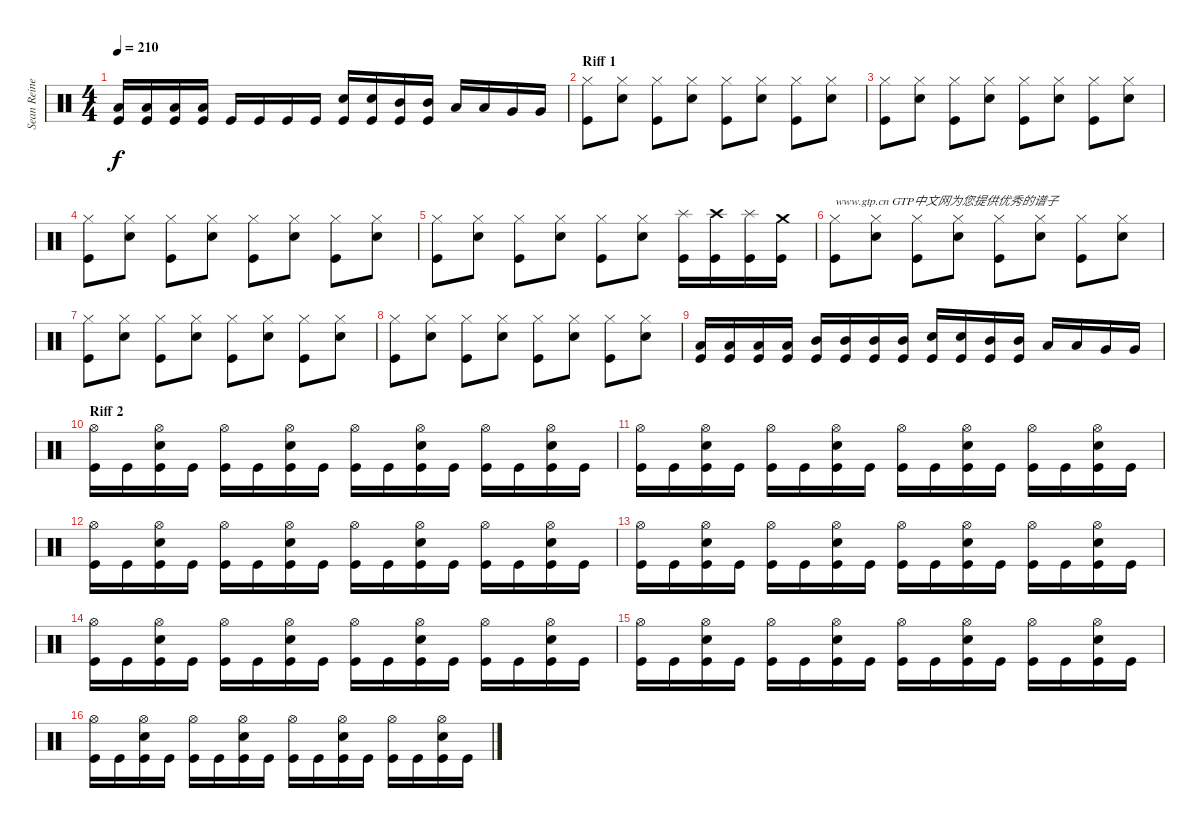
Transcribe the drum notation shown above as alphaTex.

\track ("Sean Reinert" "Sean Reine") {instrument percussion}
\staff {score}
\articulation defaults
\ts (4 4)
\tempo 210
\clef neutral
\ks c
("Low Tom (hit)" "Kick (hit)").16{dy f} ("Low Tom (hit)" "Kick (hit)").16 ("Low Tom (hit)" "Kick (hit)").16 ("Low Tom (hit)" "Kick (hit)").16 "Kick (hit)".16 "Kick (hit)".16 "Kick (hit)".16 "Kick (hit)".16 ("Snare (hit) 2" "Kick (hit)").16 ("Snare (hit) 2" "Kick (hit)").16 ("Mid Tom (hit)" "Kick (hit)").16 ("Mid Tom (hit)" "Kick (hit)").16 "Low Tom (hit)".16 "Low Tom (hit)".16 "Very Low Tom (hit)".16 "Very Low Tom (hit)".16 |
\section ("" "Riff 1")
("Hi-Hat (closed)" "Kick (hit)").8 ("Hi-Hat (closed)" "Snare (hit) 2").8 ("Hi-Hat (closed)" "Kick (hit)").8 ("Hi-Hat (closed)" "Snare (hit) 2").8 ("Hi-Hat (closed)" "Kick (hit)").8 ("Hi-Hat (closed)" "Snare (hit) 2").8 ("Hi-Hat (closed)" "Kick (hit)").8 ("Hi-Hat (closed)" "Snare (hit) 2").8 |
("Hi-Hat (closed)" "Kick (hit)").8 ("Hi-Hat (closed)" "Snare (hit) 2").8 ("Hi-Hat (closed)" "Kick (hit)").8 ("Hi-Hat (closed)" "Snare (hit) 2").8 ("Hi-Hat (closed)" "Kick (hit)").8 ("Hi-Hat (closed)" "Snare (hit) 2").8 ("Hi-Hat (closed)" "Kick (hit)").8 ("Hi-Hat (closed)" "Snare (hit) 2").8 |
("Hi-Hat (closed)" "Kick (hit)").8 ("Hi-Hat (closed)" "Snare (hit) 2").8 ("Hi-Hat (closed)" "Kick (hit)").8 ("Hi-Hat (closed)" "Snare (hit) 2").8 ("Hi-Hat (closed)" "Kick (hit)").8 ("Hi-Hat (closed)" "Snare (hit) 2").8 ("Hi-Hat (closed)" "Kick (hit)").8 ("Hi-Hat (closed)" "Snare (hit) 2").8 |
("Hi-Hat (closed)" "Kick (hit)").8 ("Hi-Hat (closed)" "Snare (hit) 2").8 ("Hi-Hat (closed)" "Kick (hit)").8 ("Hi-Hat (closed)" "Snare (hit) 2").8 ("Hi-Hat (closed)" "Kick (hit)").8 ("Hi-Hat (closed)" "Snare (hit) 2").8 ("Splash (hit)" "Kick (hit)").16 ("Crash high (hit)" "Kick (hit)").16 ("Splash (hit)" "Kick (hit)").16 ("Crash medium (hit)" "Kick (hit)").16 |
("Hi-Hat (closed)" "Kick (hit)").8{txt "www.gtp.cn GTP中文网为您提供优秀的谱子"} ("Hi-Hat (closed)" "Snare (hit) 2").8 ("Hi-Hat (closed)" "Kick (hit)").8 ("Hi-Hat (closed)" "Snare (hit) 2").8 ("Hi-Hat (closed)" "Kick (hit)").8 ("Hi-Hat (closed)" "Snare (hit) 2").8 ("Hi-Hat (closed)" "Kick (hit)").8 ("Hi-Hat (closed)" "Snare (hit) 2").8 |
("Hi-Hat (closed)" "Kick (hit)").8 ("Hi-Hat (closed)" "Snare (hit) 2").8 ("Hi-Hat (closed)" "Kick (hit)").8 ("Hi-Hat (closed)" "Snare (hit) 2").8 ("Hi-Hat (closed)" "Kick (hit)").8 ("Hi-Hat (closed)" "Snare (hit) 2").8 ("Hi-Hat (closed)" "Kick (hit)").8 ("Hi-Hat (closed)" "Snare (hit) 2").8 |
("Hi-Hat (closed)" "Kick (hit)").8 ("Hi-Hat (closed)" "Snare (hit) 2").8 ("Hi-Hat (closed)" "Kick (hit)").8 ("Hi-Hat (closed)" "Snare (hit) 2").8 ("Hi-Hat (closed)" "Kick (hit)").8 ("Hi-Hat (closed)" "Snare (hit) 2").8 ("Hi-Hat (closed)" "Kick (hit)").8 ("Hi-Hat (closed)" "Snare (hit) 2").8 |
("Low Tom (hit)" "Kick (hit)").16 ("Low Tom (hit)" "Kick (hit)").16 ("Low Tom (hit)" "Kick (hit)").16 ("Low Tom (hit)" "Kick (hit)").16 ("Mid Tom (hit)" "Kick (hit)").16 ("Mid Tom (hit)" "Kick (hit)").16 ("Mid Tom (hit)" "Kick (hit)").16 ("Mid Tom (hit)" "Kick (hit)").16 ("Snare (hit) 2" "Kick (hit)").16 ("Snare (hit) 2" "Kick (hit)").16 ("Mid Tom (hit)" "Kick (hit)").16 ("Mid Tom (hit)" "Kick (hit)").16 "Low Tom (hit)".16 "Low Tom (hit)".16 "Very Low Tom (hit)".16 "Very Low Tom (hit)".16 |
\section ("" "Riff 2")
("Hi-Hat (open)" "Kick (hit)").16 "Kick (hit)".16 ("Hi-Hat (open)" "Snare (hit) 2" "Kick (hit)").16 "Kick (hit)".16 ("Hi-Hat (open)" "Kick (hit)").16 "Kick (hit)".16 ("Hi-Hat (open)" "Snare (hit) 2" "Kick (hit)").16 "Kick (hit)".16 ("Hi-Hat (open)" "Kick (hit)").16 "Kick (hit)".16 ("Hi-Hat (open)" "Snare (hit) 2" "Kick (hit)").16 "Kick (hit)".16 ("Hi-Hat (open)" "Kick (hit)").16 "Kick (hit)".16 ("Hi-Hat (open)" "Snare (hit) 2" "Kick (hit)").16 "Kick (hit)".16 |
("Hi-Hat (open)" "Kick (hit)").16 "Kick (hit)".16 ("Hi-Hat (open)" "Snare (hit) 2" "Kick (hit)").16 "Kick (hit)".16 ("Hi-Hat (open)" "Kick (hit)").16 "Kick (hit)".16 ("Hi-Hat (open)" "Snare (hit) 2" "Kick (hit)").16 "Kick (hit)".16 ("Hi-Hat (open)" "Kick (hit)").16 "Kick (hit)".16 ("Hi-Hat (open)" "Snare (hit) 2" "Kick (hit)").16 "Kick (hit)".16 ("Hi-Hat (open)" "Kick (hit)").16 "Kick (hit)".16 ("Hi-Hat (open)" "Snare (hit) 2" "Kick (hit)").16 "Kick (hit)".16 |
("Hi-Hat (open)" "Kick (hit)").16 "Kick (hit)".16 ("Hi-Hat (open)" "Snare (hit) 2" "Kick (hit)").16 "Kick (hit)".16 ("Hi-Hat (open)" "Kick (hit)").16 "Kick (hit)".16 ("Hi-Hat (open)" "Snare (hit) 2" "Kick (hit)").16 "Kick (hit)".16 ("Hi-Hat (open)" "Kick (hit)").16 "Kick (hit)".16 ("Hi-Hat (open)" "Snare (hit) 2" "Kick (hit)").16 "Kick (hit)".16 ("Hi-Hat (open)" "Kick (hit)").16 "Kick (hit)".16 ("Hi-Hat (open)" "Snare (hit) 2" "Kick (hit)").16 "Kick (hit)".16 |
("Hi-Hat (open)" "Kick (hit)").16 "Kick (hit)".16 ("Hi-Hat (open)" "Snare (hit) 2" "Kick (hit)").16 "Kick (hit)".16 ("Hi-Hat (open)" "Kick (hit)").16 "Kick (hit)".16 ("Hi-Hat (open)" "Snare (hit) 2" "Kick (hit)").16 "Kick (hit)".16 ("Hi-Hat (open)" "Kick (hit)").16 "Kick (hit)".16 ("Hi-Hat (open)" "Snare (hit) 2" "Kick (hit)").16 "Kick (hit)".16 ("Hi-Hat (open)" "Kick (hit)").16 "Kick (hit)".16 ("Hi-Hat (open)" "Snare (hit) 2" "Kick (hit)").16 "Kick (hit)".16 |
("Hi-Hat (open)" "Kick (hit)").16 "Kick (hit)".16 ("Hi-Hat (open)" "Snare (hit) 2" "Kick (hit)").16 "Kick (hit)".16 ("Hi-Hat (open)" "Kick (hit)").16 "Kick (hit)".16 ("Hi-Hat (open)" "Snare (hit) 2" "Kick (hit)").16 "Kick (hit)".16 ("Hi-Hat (open)" "Kick (hit)").16 "Kick (hit)".16 ("Hi-Hat (open)" "Snare (hit) 2" "Kick (hit)").16 "Kick (hit)".16 ("Hi-Hat (open)" "Kick (hit)").16 "Kick (hit)".16 ("Hi-Hat (open)" "Snare (hit) 2" "Kick (hit)").16 "Kick (hit)".16 |
("Hi-Hat (open)" "Kick (hit)").16 "Kick (hit)".16 ("Hi-Hat (open)" "Snare (hit) 2" "Kick (hit)").16 "Kick (hit)".16 ("Hi-Hat (open)" "Kick (hit)").16 "Kick (hit)".16 ("Hi-Hat (open)" "Snare (hit) 2" "Kick (hit)").16 "Kick (hit)".16 ("Hi-Hat (open)" "Kick (hit)").16 "Kick (hit)".16 ("Hi-Hat (open)" "Snare (hit) 2" "Kick (hit)").16 "Kick (hit)".16 ("Hi-Hat (open)" "Kick (hit)").16 "Kick (hit)".16 ("Hi-Hat (open)" "Snare (hit) 2" "Kick (hit)").16 "Kick (hit)".16 |
("Hi-Hat (open)" "Kick (hit)").16 "Kick (hit)".16 ("Hi-Hat (open)" "Snare (hit) 2" "Kick (hit)").16 "Kick (hit)".16 ("Hi-Hat (open)" "Kick (hit)").16 "Kick (hit)".16 ("Hi-Hat (open)" "Snare (hit) 2" "Kick (hit)").16 "Kick (hit)".16 ("Hi-Hat (open)" "Kick (hit)").16 "Kick (hit)".16 ("Hi-Hat (open)" "Snare (hit) 2" "Kick (hit)").16 "Kick (hit)".16 ("Hi-Hat (open)" "Kick (hit)").16 "Kick (hit)".16 ("Hi-Hat (open)" "Snare (hit) 2" "Kick (hit)").16 "Kick (hit)".16
